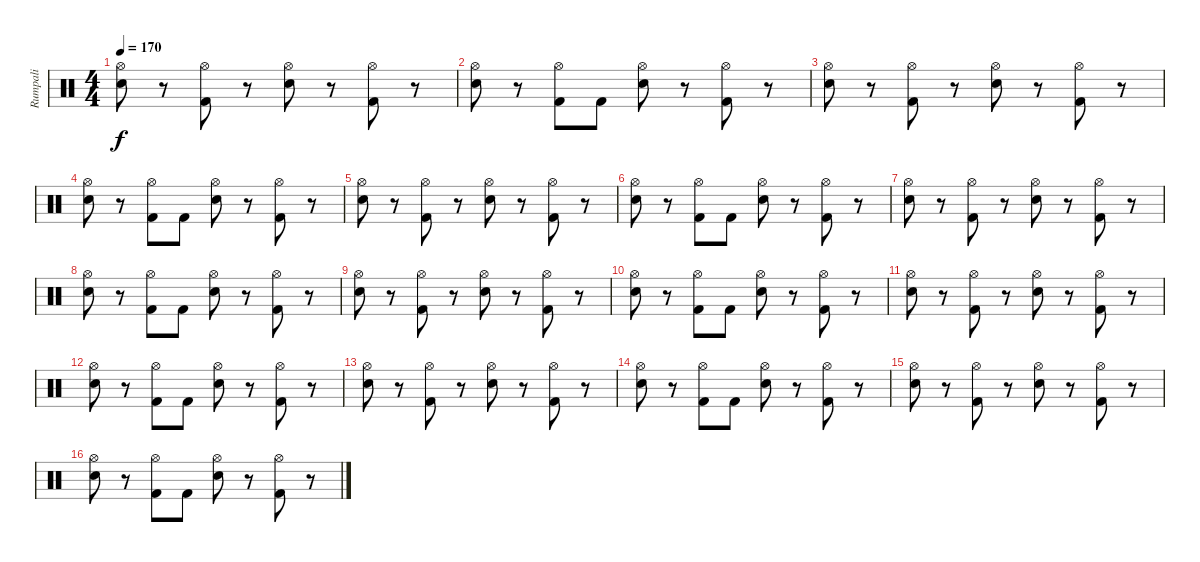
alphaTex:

\track ("Rumpali" "Rumpali") {instrument percussion}
\staff {score}
\articulation defaults
\ts (4 4)
\tempo 170
\clef neutral
\ks c
("Hi-Hat (open)" "Electric Snare (hit)").8{dy f} r.8 ("Hi-Hat (open)" "Kick (hit) 2").8 r.8 ("Hi-Hat (open)" "Electric Snare (hit)").8 r.8 ("Hi-Hat (open)" "Kick (hit) 2").8 r.8 |
("Hi-Hat (open)" "Electric Snare (hit)").8 r.8 ("Hi-Hat (open)" "Kick (hit) 2").8 "Kick (hit) 2".8 ("Hi-Hat (open)" "Electric Snare (hit)").8 r.8 ("Hi-Hat (open)" "Kick (hit) 2").8 r.8 |
("Hi-Hat (open)" "Electric Snare (hit)").8 r.8 ("Hi-Hat (open)" "Kick (hit) 2").8 r.8 ("Hi-Hat (open)" "Electric Snare (hit)").8 r.8 ("Hi-Hat (open)" "Kick (hit) 2").8 r.8 |
("Hi-Hat (open)" "Electric Snare (hit)").8 r.8 ("Hi-Hat (open)" "Kick (hit) 2").8 "Kick (hit) 2".8 ("Hi-Hat (open)" "Electric Snare (hit)").8 r.8 ("Hi-Hat (open)" "Kick (hit) 2").8 r.8 |
("Hi-Hat (open)" "Electric Snare (hit)").8 r.8 ("Hi-Hat (open)" "Kick (hit) 2").8 r.8 ("Hi-Hat (open)" "Electric Snare (hit)").8 r.8 ("Hi-Hat (open)" "Kick (hit) 2").8 r.8 |
("Hi-Hat (open)" "Electric Snare (hit)").8 r.8 ("Hi-Hat (open)" "Kick (hit) 2").8 "Kick (hit) 2".8 ("Hi-Hat (open)" "Electric Snare (hit)").8 r.8 ("Hi-Hat (open)" "Kick (hit) 2").8 r.8 |
("Hi-Hat (open)" "Electric Snare (hit)").8 r.8 ("Hi-Hat (open)" "Kick (hit) 2").8 r.8 ("Hi-Hat (open)" "Electric Snare (hit)").8 r.8 ("Hi-Hat (open)" "Kick (hit) 2").8 r.8 |
("Hi-Hat (open)" "Electric Snare (hit)").8 r.8 ("Hi-Hat (open)" "Kick (hit) 2").8 "Kick (hit) 2".8 ("Hi-Hat (open)" "Electric Snare (hit)").8 r.8 ("Hi-Hat (open)" "Kick (hit) 2").8 r.8 |
("Hi-Hat (open)" "Electric Snare (hit)").8 r.8 ("Hi-Hat (open)" "Kick (hit) 2").8 r.8 ("Hi-Hat (open)" "Electric Snare (hit)").8 r.8 ("Hi-Hat (open)" "Kick (hit) 2").8 r.8 |
("Hi-Hat (open)" "Electric Snare (hit)").8 r.8 ("Hi-Hat (open)" "Kick (hit) 2").8 "Kick (hit) 2".8 ("Hi-Hat (open)" "Electric Snare (hit)").8 r.8 ("Hi-Hat (open)" "Kick (hit) 2").8 r.8 |
("Hi-Hat (open)" "Electric Snare (hit)").8 r.8 ("Hi-Hat (open)" "Kick (hit) 2").8 r.8 ("Hi-Hat (open)" "Electric Snare (hit)").8 r.8 ("Hi-Hat (open)" "Kick (hit) 2").8 r.8 |
("Hi-Hat (open)" "Electric Snare (hit)").8 r.8 ("Hi-Hat (open)" "Kick (hit) 2").8 "Kick (hit) 2".8 ("Hi-Hat (open)" "Electric Snare (hit)").8 r.8 ("Hi-Hat (open)" "Kick (hit) 2").8 r.8 |
("Hi-Hat (open)" "Electric Snare (hit)").8 r.8 ("Hi-Hat (open)" "Kick (hit) 2").8 r.8 ("Hi-Hat (open)" "Electric Snare (hit)").8 r.8 ("Hi-Hat (open)" "Kick (hit) 2").8 r.8 |
("Hi-Hat (open)" "Electric Snare (hit)").8 r.8 ("Hi-Hat (open)" "Kick (hit) 2").8 "Kick (hit) 2".8 ("Hi-Hat (open)" "Electric Snare (hit)").8 r.8 ("Hi-Hat (open)" "Kick (hit) 2").8 r.8 |
("Hi-Hat (open)" "Electric Snare (hit)").8 r.8 ("Hi-Hat (open)" "Kick (hit) 2").8 r.8 ("Hi-Hat (open)" "Electric Snare (hit)").8 r.8 ("Hi-Hat (open)" "Kick (hit) 2").8 r.8 |
("Hi-Hat (open)" "Electric Snare (hit)").8 r.8 ("Hi-Hat (open)" "Kick (hit) 2").8 "Kick (hit) 2".8 ("Hi-Hat (open)" "Electric Snare (hit)").8 r.8 ("Hi-Hat (open)" "Kick (hit) 2").8 r.8
